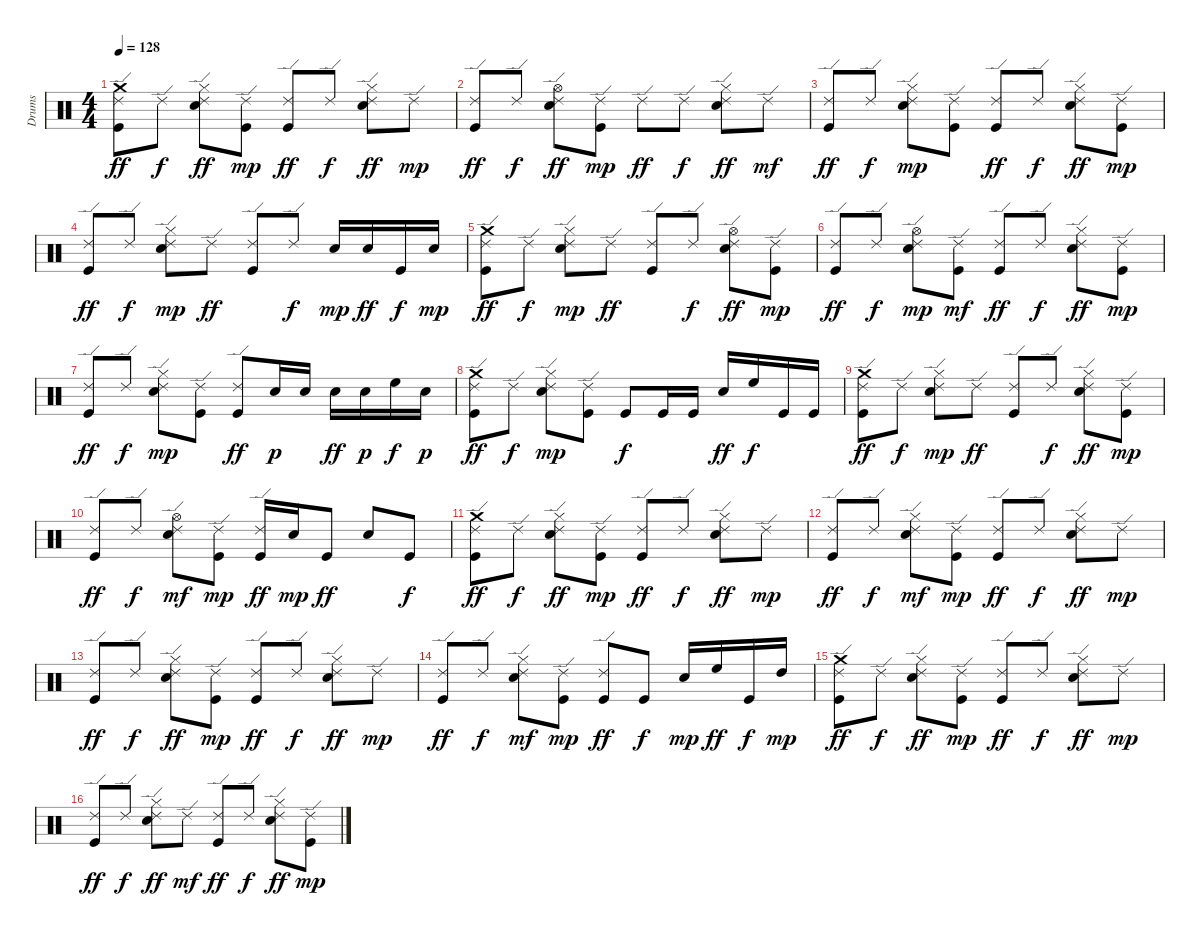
\track ("Drums" "Drums") {instrument percussion}
\staff {score}
\articulation defaults
\ts (4 4)
\tempo 128
\clef neutral
\ks c
("Crash medium (hit)" "Ride (edge) 2" "Kick (hit)").8{dy ff} "Ride (edge) 2".8{dy f} ("Electric Snare (hit)" "Hi-Hat (closed)" "Ride (edge) 2").8{dy ff} ("Ride (edge) 2" "Kick (hit)").8{dy mp} ("Ride (edge) 2" "Kick (hit)").8{dy ff} "Ride (edge) 2".8{dy f} ("Electric Snare (hit)" "Hi-Hat (closed)" "Ride (edge) 2").8{dy ff} "Ride (edge) 2".8{dy mp} |
("Ride (edge) 2" "Kick (hit)").8{dy ff} "Ride (edge) 2".8{dy f} ("Electric Snare (hit)" "Hi-Hat (open)" "Ride (edge) 2").8{dy ff} ("Ride (edge) 2" "Kick (hit)").8{dy mp} "Ride (edge) 2".8{dy ff} "Ride (edge) 2".8{dy f} ("Electric Snare (hit)" "Hi-Hat (closed)" "Ride (edge) 2").8{dy ff} "Ride (edge) 2".8{dy mf} |
("Ride (edge) 2" "Kick (hit)").8{dy ff} "Ride (edge) 2".8{dy f} ("Electric Snare (hit)" "Hi-Hat (closed)" "Ride (edge) 2").8{dy mp} ("Ride (edge) 2" "Kick (hit)").8 ("Ride (edge) 2" "Kick (hit)").8{dy ff} "Ride (edge) 2".8{dy f} ("Electric Snare (hit)" "Hi-Hat (closed)" "Ride (edge) 2").8{dy ff} ("Ride (edge) 2" "Kick (hit)").8{dy mp} |
("Ride (edge) 2" "Kick (hit)").8{dy ff} "Ride (edge) 2".8{dy f} ("Electric Snare (hit)" "Hi-Hat (closed)" "Ride (edge) 2").8{dy mp} "Ride (edge) 2".8{dy ff} ("Ride (edge) 2" "Kick (hit)").8 "Ride (edge) 2".8{dy f} "Electric Snare (hit)".16{dy mp} "Electric Snare (hit)".16{dy ff} "Kick (hit)".16{dy f} "Electric Snare (hit)".16{dy mp} |
("Crash medium (hit)" "Ride (edge) 2" "Kick (hit)").8{dy ff} "Ride (edge) 2".8{dy f} ("Electric Snare (hit)" "Hi-Hat (closed)" "Ride (edge) 2").8{dy mp} "Ride (edge) 2".8{dy ff} ("Ride (edge) 2" "Kick (hit)").8 "Ride (edge) 2".8{dy f} ("Electric Snare (hit)" "Hi-Hat (open)" "Ride (edge) 2").8{dy ff} ("Ride (edge) 2" "Kick (hit)").8{dy mp} |
("Ride (edge) 2" "Kick (hit)").8{dy ff} "Ride (edge) 2".8{dy f} ("Electric Snare (hit)" "Hi-Hat (open)" "Ride (edge) 2").8{dy mp} ("Ride (edge) 2" "Kick (hit)").8{dy mf} ("Ride (edge) 2" "Kick (hit)").8{dy ff} "Ride (edge) 2".8{dy f} ("Electric Snare (hit)" "Hi-Hat (closed)" "Ride (edge) 2").8{dy ff} ("Ride (edge) 2" "Kick (hit)").8{dy mp} |
("Ride (edge) 2" "Kick (hit)").8{dy ff} "Ride (edge) 2".8{dy f} ("Electric Snare (hit)" "Hi-Hat (closed)" "Ride (edge) 2").8{dy mp} ("Ride (edge) 2" "Kick (hit)").8 ("Ride (edge) 2" "Kick (hit)").8{dy ff} "Electric Snare (hit)".16{dy p} "Electric Snare (hit)".16 "Electric Snare (hit)".16{dy ff} "Electric Snare (hit)".16{dy p} "High Floor Tom (hit)".16{dy f} "Electric Snare (hit)".16{dy p} |
("Crash medium (hit)" "Ride (edge) 2" "Kick (hit)").8{dy ff} "Ride (edge) 2".8{dy f} ("Electric Snare (hit)" "Hi-Hat (closed)" "Ride (edge) 2").8{dy mp} ("Ride (edge) 2" "Kick (hit)").8 "Kick (hit)".8{dy f} "Kick (hit)".16 "Kick (hit)".16 "Electric Snare (hit)".16{dy ff} "High Floor Tom (hit)".16{dy f} "Kick (hit)".16 "Kick (hit)".16 |
("Crash medium (hit)" "Ride (edge) 2" "Kick (hit)").8{dy ff} "Ride (edge) 2".8{dy f} ("Electric Snare (hit)" "Hi-Hat (closed)" "Ride (edge) 2").8{dy mp} "Ride (edge) 2".8{dy ff} ("Ride (edge) 2" "Kick (hit)").8 "Ride (edge) 2".8{dy f} ("Electric Snare (hit)" "Hi-Hat (closed)" "Ride (edge) 2").8{dy ff} ("Ride (edge) 2" "Kick (hit)").8{dy mp} |
("Ride (edge) 2" "Kick (hit)").8{dy ff} "Ride (edge) 2".8{dy f} ("Electric Snare (hit)" "Hi-Hat (open)" "Ride (edge) 2").8{dy mf} ("Ride (edge) 2" "Kick (hit)").8{dy mp} ("Ride (edge) 2" "Kick (hit)").16{dy ff} "Electric Snare (hit)".16{dy mp} "Kick (hit)".8{dy ff} "Electric Snare (hit)".8 "Kick (hit)".8{dy f} |
("Crash medium (hit)" "Ride (edge) 2" "Kick (hit)").8{dy ff} "Ride (edge) 2".8{dy f} ("Electric Snare (hit)" "Hi-Hat (closed)" "Ride (edge) 2").8{dy ff} ("Ride (edge) 2" "Kick (hit)").8{dy mp} ("Ride (edge) 2" "Kick (hit)").8{dy ff} "Ride (edge) 2".8{dy f} ("Electric Snare (hit)" "Hi-Hat (closed)" "Ride (edge) 2").8{dy ff} "Ride (edge) 2".8{dy mp} |
("Ride (edge) 2" "Kick (hit)").8{dy ff} "Ride (edge) 2".8{dy f} ("Electric Snare (hit)" "Hi-Hat (closed)" "Ride (edge) 2").8{dy mf} ("Ride (edge) 2" "Kick (hit)").8{dy mp} ("Ride (edge) 2" "Kick (hit)").8{dy ff} "Ride (edge) 2".8{dy f} ("Electric Snare (hit)" "Hi-Hat (closed)" "Ride (edge) 2").8{dy ff} "Ride (edge) 2".8{dy mp} |
("Ride (edge) 2" "Kick (hit)").8{dy ff} "Ride (edge) 2".8{dy f} ("Electric Snare (hit)" "Hi-Hat (closed)" "Ride (edge) 2").8{dy ff} ("Ride (edge) 2" "Kick (hit)").8{dy mp} ("Ride (edge) 2" "Kick (hit)").8{dy ff} "Ride (edge) 2".8{dy f} ("Electric Snare (hit)" "Hi-Hat (closed)" "Ride (edge) 2").8{dy ff} "Ride (edge) 2".8{dy mp} |
("Ride (edge) 2" "Kick (hit)").8{dy ff} "Ride (edge) 2".8{dy f} ("Electric Snare (hit)" "Hi-Hat (closed)" "Ride (edge) 2").8{dy mf} ("Ride (edge) 2" "Kick (hit)").8{dy mp} ("Ride (edge) 2" "Kick (hit)").8{dy ff} "Kick (hit)".8{dy f} "Electric Snare (hit)".16{dy mp} "High Floor Tom (hit)".16{dy ff} "Kick (hit)".16{dy f} "High Tom (hit)".16{dy mp} |
("Crash medium (hit)" "Ride (edge) 2" "Kick (hit)").8{dy ff} "Ride (edge) 2".8{dy f} ("Electric Snare (hit)" "Hi-Hat (closed)" "Ride (edge) 2").8{dy ff} ("Ride (edge) 2" "Kick (hit)").8{dy mp} ("Ride (edge) 2" "Kick (hit)").8{dy ff} "Ride (edge) 2".8{dy f} ("Electric Snare (hit)" "Hi-Hat (closed)" "Ride (edge) 2").8{dy ff} "Ride (edge) 2".8{dy mp} |
("Ride (edge) 2" "Kick (hit)").8{dy ff} "Ride (edge) 2".8{dy f} ("Electric Snare (hit)" "Hi-Hat (closed)" "Ride (edge) 2").8{dy ff} "Ride (edge) 2".8{dy mf} ("Ride (edge) 2" "Kick (hit)").8{dy ff} "Ride (edge) 2".8{dy f} ("Electric Snare (hit)" "Hi-Hat (closed)" "Ride (edge) 2").8{dy ff} ("Ride (edge) 2" "Kick (hit)").8{dy mp}
